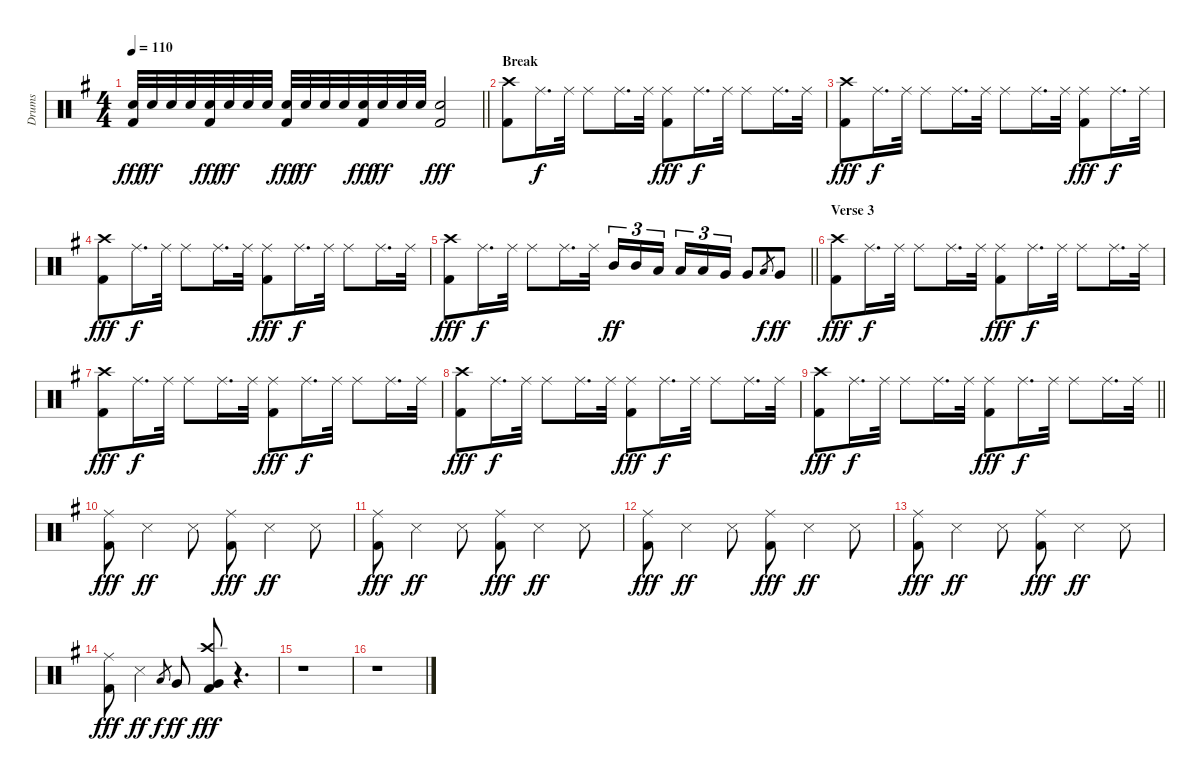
\track ("Drums" "Drums") {instrument percussion}
\staff {score}
\articulation defaults
\ts (4 4)
\tempo 110
\clef neutral
\barLineRight lightlight
\ks g
("Snare (hit) 2" "Kick (hit) 2").32{dy fff} "Snare (hit) 2".32{dy ff} "Snare (hit) 2".32 "Snare (hit) 2".32 ("Snare (hit) 2" "Kick (hit) 2").32{dy fff} "Snare (hit) 2".32{dy ff} "Snare (hit) 2".32 "Snare (hit) 2".32 ("Snare (hit) 2" "Kick (hit) 2").32{dy fff} "Snare (hit) 2".32{dy ff} "Snare (hit) 2".32 "Snare (hit) 2".32 ("Snare (hit) 2" "Kick (hit) 2").32{dy fff} "Snare (hit) 2".32{dy ff} "Snare (hit) 2".32 "Snare (hit) 2".32 ("Snare (hit) 2" "Kick (hit) 2").2{dy fff} |
\section ("" "Break")
("Crash high (hit)" "Kick (hit) 2").8 "Ride (middle)".16{d dy f} "Ride (middle)".32 "Ride (middle)".8 "Ride (middle)".16{d} "Ride (middle)".32 ("Ride (middle)" "Kick (hit) 2").8{dy fff} "Ride (middle)".16{d dy f} "Ride (middle)".32 "Ride (middle)".8 "Ride (middle)".16{d} "Ride (middle)".32 |
("Crash high (hit)" "Kick (hit) 2").8{dy fff} "Ride (middle)".16{d dy f} "Ride (middle)".32 "Ride (middle)".8 "Ride (middle)".16{d} "Ride (middle)".32 "Ride (middle)".8 "Ride (middle)".16{d} "Ride (middle)".32 ("Ride (middle)" "Kick (hit) 2").8{dy fff} "Ride (middle)".16{d dy f} "Ride (middle)".32 |
("Crash high (hit)" "Kick (hit) 2").8{dy fff} "Ride (middle)".16{d dy f} "Ride (middle)".32 "Ride (middle)".8 "Ride (middle)".16{d} "Ride (middle)".32 ("Ride (middle)" "Kick (hit) 2").8{dy fff} "Ride (middle)".16{d dy f} "Ride (middle)".32 "Ride (middle)".8 "Ride (middle)".16{d} "Ride (middle)".32 |
\barLineRight lightlight
("Crash high (hit)" "Kick (hit) 2").8{dy fff} "Ride (middle)".16{d dy f} "Ride (middle)".32 "Ride (middle)".8 "Ride (middle)".16{d} "Ride (middle)".32 "Mid Tom (hit)".16{tu (3 2) dy ff} "Mid Tom (hit)".16{tu (3 2)} "Low Tom (hit)".16{tu (3 2) beam splitsecondary} "Low Tom (hit)".16{tu (3 2)} "Low Tom (hit)".16{tu (3 2)} "Very Low Tom (hit)".16{tu (3 2)} "Very Low Tom (hit)".8 "Low Tom (hit)".8{gr dy f} "Very Low Tom (hit)".8{dy ff} |
\section ("" "Verse 3")
("Crash high (hit)" "Kick (hit) 2").8{dy fff} "Ride (middle)".16{d dy f} "Ride (middle)".32 "Ride (middle)".8 "Ride (middle)".16{d} "Ride (middle)".32 ("Ride (middle)" "Kick (hit) 2").8{dy fff} "Ride (middle)".16{d dy f} "Ride (middle)".32 "Ride (middle)".8 "Ride (middle)".16{d} "Ride (middle)".32 |
("Crash high (hit)" "Kick (hit) 2").8{dy fff} "Ride (middle)".16{d dy f} "Ride (middle)".32 "Ride (middle)".8 "Ride (middle)".16{d} "Ride (middle)".32 ("Ride (middle)" "Kick (hit) 2").8{dy fff} "Ride (middle)".16{d dy f} "Ride (middle)".32 "Ride (middle)".8 "Ride (middle)".16{d} "Ride (middle)".32 |
("Crash high (hit)" "Kick (hit) 2").8{dy fff} "Ride (middle)".16{d dy f} "Ride (middle)".32 "Ride (middle)".8 "Ride (middle)".16{d} "Ride (middle)".32 ("Ride (middle)" "Kick (hit) 2").8{dy fff} "Ride (middle)".16{d dy f} "Ride (middle)".32 "Ride (middle)".8 "Ride (middle)".16{d} "Ride (middle)".32 |
\barLineRight lightlight
("Crash high (hit)" "Kick (hit) 2").8{dy fff} "Ride (middle)".16{d dy f} "Ride (middle)".32 "Ride (middle)".8 "Ride (middle)".16{d} "Ride (middle)".32 ("Ride (middle)" "Kick (hit) 2").8{dy fff} "Ride (middle)".16{d dy f} "Ride (middle)".32 "Ride (middle)".8 "Ride (middle)".16{d} "Ride (middle)".32 |
("Ride (middle)" "Kick (hit) 2").8{dy fff} "Snare (side stick) 3".4{dy ff} "Snare (side stick) 3".8 ("Ride (middle)" "Kick (hit) 2").8{dy fff} "Snare (side stick) 3".4{dy ff} "Snare (side stick) 3".8 |
("Ride (middle)" "Kick (hit) 2").8{dy fff} "Snare (side stick) 3".4{dy ff} "Snare (side stick) 3".8 ("Ride (middle)" "Kick (hit) 2").8{dy fff} "Snare (side stick) 3".4{dy ff} "Snare (side stick) 3".8 |
("Ride (middle)" "Kick (hit) 2").8{dy fff} "Snare (side stick) 3".4{dy ff} "Snare (side stick) 3".8 ("Ride (middle)" "Kick (hit) 2").8{dy fff} "Snare (side stick) 3".4{dy ff} "Snare (side stick) 3".8 |
("Ride (middle)" "Kick (hit) 2").8{dy fff} "Snare (side stick) 3".4{dy ff} "Snare (side stick) 3".8 ("Ride (middle)" "Kick (hit) 2").8{dy fff} "Snare (side stick) 3".4{dy ff} "Snare (side stick) 3".8 |
("Ride (middle)" "Kick (hit) 2").8{dy fff} "Snare (side stick) 3".4{dy ff} "Low Tom (hit)".8{gr dy f} "Very Low Tom (hit)".8{dy ff} ("Crash high (hit)" "Very Low Tom (hit)" "Kick (hit) 2").8{dy fff} r.4{d} |
r.1 |
r.1
